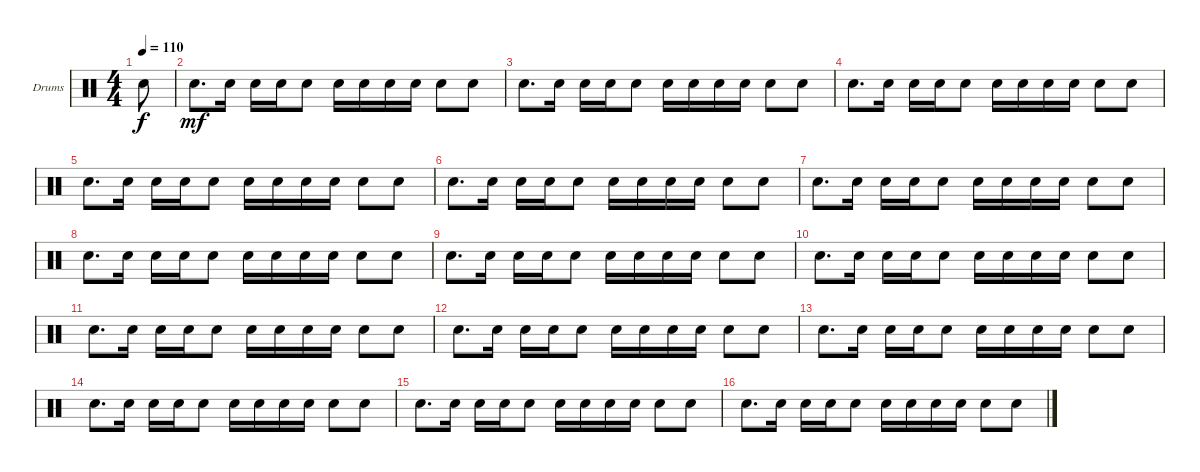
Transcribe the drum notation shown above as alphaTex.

\defaultSystemsLayout 4
\bracketExtendMode groupsimilarinstruments
\firstSystemTrackNameOrientation horizontal
\otherSystemsTrackNameOrientation horizontal
\track ("Drumkit" "Drums") {instrument percussion}
\staff {score}
\articulation defaults
\ts (4 4)
\ac
\tempo 110
\clef neutral
\ks c "Snare (hit) 2".8{dy f}
|
\scale
0.474178 "Snare (hit) 2".8{d dy mf} "Snare (hit) 2".16 "Snare (hit) 2".16 "Snare (hit) 2".16 "Snare (hit) 2".8 "Snare (hit) 2".16 "Snare (hit) 2".16 "Snare (hit) 2".16 "Snare (hit) 2".16 "Snare (hit) 2".8 "Snare (hit) 2".8 |
\scale
0.262911 "Snare (hit) 2".8{d} "Snare (hit) 2".16 "Snare (hit) 2".16 "Snare (hit) 2".16 "Snare (hit) 2".8 "Snare (hit) 2".16 "Snare (hit) 2".16 "Snare (hit) 2".16 "Snare (hit) 2".16 "Snare (hit) 2".8 "Snare (hit) 2".8 |
\scale
0.262911 "Snare (hit) 2".8{d} "Snare (hit) 2".16 "Snare (hit) 2".16 "Snare (hit) 2".16 "Snare (hit) 2".8 "Snare (hit) 2".16 "Snare (hit) 2".16 "Snare (hit) 2".16 "Snare (hit) 2".16 "Snare (hit) 2".8 "Snare (hit) 2".8 |
\scale
0.333333 "Snare (hit) 2".8{d} "Snare (hit) 2".16 "Snare (hit) 2".16 "Snare (hit) 2".16 "Snare (hit) 2".8 "Snare (hit) 2".16 "Snare (hit) 2".16 "Snare (hit) 2".16 "Snare (hit) 2".16 "Snare (hit) 2".8 "Snare (hit) 2".8 |
\scale
0.333333 "Snare (hit) 2".8{d} "Snare (hit) 2".16 "Snare (hit) 2".16 "Snare (hit) 2".16 "Snare (hit) 2".8 "Snare (hit) 2".16 "Snare (hit) 2".16 "Snare (hit) 2".16 "Snare (hit) 2".16 "Snare (hit) 2".8 "Snare (hit) 2".8 |
"Snare (hit) 2".8{d} "Snare (hit) 2".16 "Snare (hit) 2".16 "Snare (hit) 2".16 "Snare (hit) 2".8 "Snare (hit) 2".16 "Snare (hit) 2".16 "Snare (hit) 2".16 "Snare (hit) 2".16 "Snare (hit) 2".8 "Snare (hit) 2".8 |
"Snare (hit) 2".8{d} "Snare (hit) 2".16 "Snare (hit) 2".16 "Snare (hit) 2".16 "Snare (hit) 2".8 "Snare (hit) 2".16 "Snare (hit) 2".16 "Snare (hit) 2".16 "Snare (hit) 2".16 "Snare (hit) 2".8 "Snare (hit) 2".8 |
"Snare (hit) 2".8{d} "Snare (hit) 2".16 "Snare (hit) 2".16 "Snare (hit) 2".16 "Snare (hit) 2".8 "Snare (hit) 2".16 "Snare (hit) 2".16 "Snare (hit) 2".16 "Snare (hit) 2".16 "Snare (hit) 2".8 "Snare (hit) 2".8 |
"Snare (hit) 2".8{d} "Snare (hit) 2".16 "Snare (hit) 2".16 "Snare (hit) 2".16 "Snare (hit) 2".8 "Snare (hit) 2".16 "Snare (hit) 2".16 "Snare (hit) 2".16 "Snare (hit) 2".16 "Snare (hit) 2".8 "Snare (hit) 2".8 |
"Snare (hit) 2".8{d} "Snare (hit) 2".16 "Snare (hit) 2".16 "Snare (hit) 2".16 "Snare (hit) 2".8 "Snare (hit) 2".16 "Snare (hit) 2".16 "Snare (hit) 2".16 "Snare (hit) 2".16 "Snare (hit) 2".8 "Snare (hit) 2".8 |
"Snare (hit) 2".8{d} "Snare (hit) 2".16 "Snare (hit) 2".16 "Snare (hit) 2".16 "Snare (hit) 2".8 "Snare (hit) 2".16 "Snare (hit) 2".16 "Snare (hit) 2".16 "Snare (hit) 2".16 "Snare (hit) 2".8 "Snare (hit) 2".8 |
"Snare (hit) 2".8{d} "Snare (hit) 2".16 "Snare (hit) 2".16 "Snare (hit) 2".16 "Snare (hit) 2".8 "Snare (hit) 2".16 "Snare (hit) 2".16 "Snare (hit) 2".16 "Snare (hit) 2".16 "Snare (hit) 2".8 "Snare (hit) 2".8 |
"Snare (hit) 2".8{d} "Snare (hit) 2".16 "Snare (hit) 2".16 "Snare (hit) 2".16 "Snare (hit) 2".8 "Snare (hit) 2".16 "Snare (hit) 2".16 "Snare (hit) 2".16 "Snare (hit) 2".16 "Snare (hit) 2".8 "Snare (hit) 2".8 |
"Snare (hit) 2".8{d} "Snare (hit) 2".16 "Snare (hit) 2".16 "Snare (hit) 2".16 "Snare (hit) 2".8 "Snare (hit) 2".16 "Snare (hit) 2".16 "Snare (hit) 2".16 "Snare (hit) 2".16 "Snare (hit) 2".8 "Snare (hit) 2".8 |
"Snare (hit) 2".8{d} "Snare (hit) 2".16 "Snare (hit) 2".16 "Snare (hit) 2".16 "Snare (hit) 2".8 "Snare (hit) 2".16 "Snare (hit) 2".16 "Snare (hit) 2".16 "Snare (hit) 2".16 "Snare (hit) 2".8 "Snare (hit) 2".8
